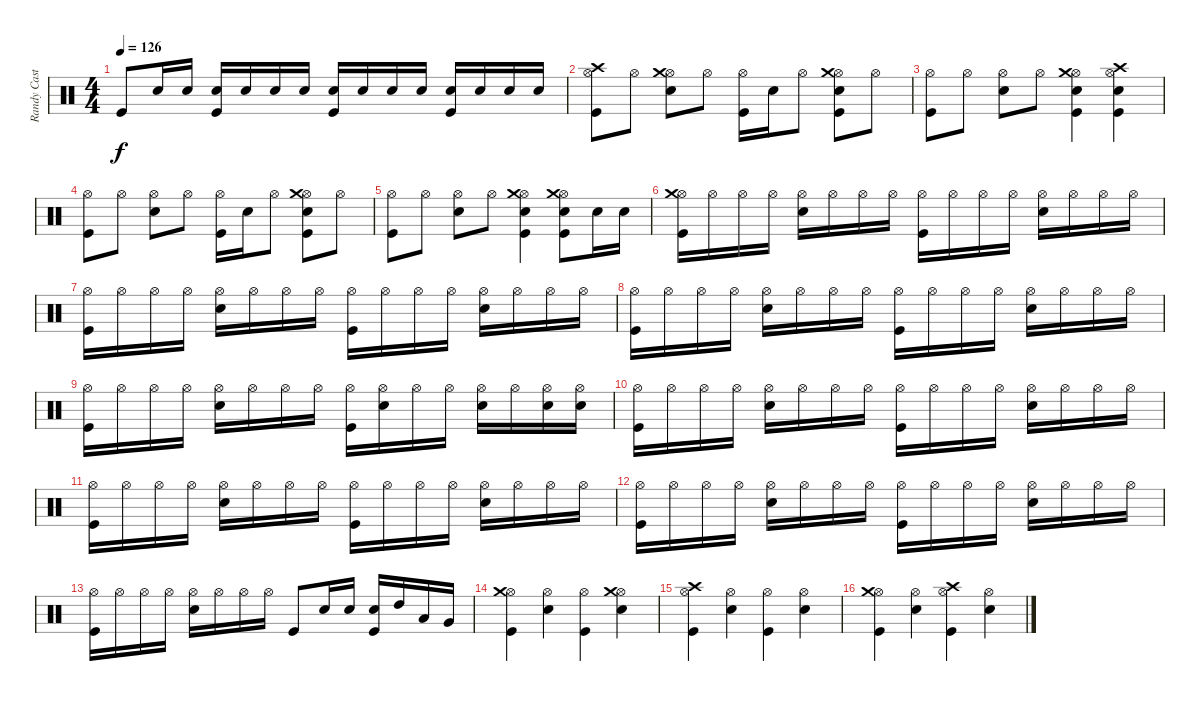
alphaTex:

\track ("Randy Castillo" "Randy Cast") {instrument percussion}
\staff {score}
\articulation defaults
\ts (4 4)
\tempo 126
\clef neutral
\ks c "Kick (hit)".8{dy f} "Snare (hit) 2".16 "Snare (hit) 2".16
("Kick (hit)" "Snare (hit) 2").16 "Snare (hit) 2".16 "Snare (hit) 2".16 "Snare (hit) 2".16 ("Kick (hit)" "Snare (hit) 2").16 "Snare (hit) 2".16 "Snare (hit) 2".16 "Snare (hit) 2".16 ("Kick (hit)" "Snare (hit) 2").16 "Snare (hit) 2".16 "Snare (hit) 2".16 "Snare (hit) 2".16 |
("Kick (hit)" "Hi-Hat (open)" "Crash high (hit)").8 "Hi-Hat (open)".8 ("Snare (hit) 2" "Hi-Hat (open)" "Crash medium (hit)").8 "Hi-Hat (open)".8 ("Kick (hit)" "Hi-Hat (open)").16 "Snare (hit) 2".16 "Hi-Hat (open)".8 ("Kick (hit)" "Snare (hit) 2" "Hi-Hat (open)" "Crash medium (hit)").8 "Hi-Hat (open)".8 |
("Kick (hit)" "Hi-Hat (open)").8 "Hi-Hat (open)".8 ("Snare (hit) 2" "Hi-Hat (open)").8 "Hi-Hat (open)".8 ("Kick (hit)" "Snare (hit) 2" "Hi-Hat (open)" "Crash medium (hit)").4 ("Kick (hit)" "Snare (hit) 2" "Hi-Hat (open)" "Crash high (hit)").4 |
("Kick (hit)" "Hi-Hat (open)").8 "Hi-Hat (open)".8 ("Snare (hit) 2" "Hi-Hat (open)").8 "Hi-Hat (open)".8 ("Kick (hit)" "Hi-Hat (open)").16 "Snare (hit) 2".16 "Hi-Hat (open)".8 ("Kick (hit)" "Snare (hit) 2" "Hi-Hat (open)" "Crash medium (hit)").8 "Hi-Hat (open)".8 |
("Kick (hit)" "Hi-Hat (open)").8 "Hi-Hat (open)".8 ("Snare (hit) 2" "Hi-Hat (open)").8 "Hi-Hat (open)".8 ("Kick (hit)" "Snare (hit) 2" "Hi-Hat (open)" "Crash medium (hit)").4 ("Kick (hit)" "Snare (hit) 2" "Hi-Hat (open)" "Crash medium (hit)").8 "Snare (hit) 2".16 "Snare (hit) 2".16 |
("Kick (hit)" "Hi-Hat (open)" "Crash medium (hit)").16 "Hi-Hat (open)".16 "Hi-Hat (open)".16 "Hi-Hat (open)".16 ("Snare (hit) 2" "Hi-Hat (open)").16 "Hi-Hat (open)".16 "Hi-Hat (open)".16 "Hi-Hat (open)".16 ("Kick (hit)" "Hi-Hat (open)").16 "Hi-Hat (open)".16 "Hi-Hat (open)".16 "Hi-Hat (open)".16 ("Snare (hit) 2" "Hi-Hat (open)").16 "Hi-Hat (open)".16 "Hi-Hat (open)".16 "Hi-Hat (open)".16 |
("Kick (hit)" "Hi-Hat (open)").16 "Hi-Hat (open)".16 "Hi-Hat (open)".16 "Hi-Hat (open)".16 ("Snare (hit) 2" "Hi-Hat (open)").16 "Hi-Hat (open)".16 "Hi-Hat (open)".16 "Hi-Hat (open)".16 ("Kick (hit)" "Hi-Hat (open)").16 "Hi-Hat (open)".16 "Hi-Hat (open)".16 "Hi-Hat (open)".16 ("Snare (hit) 2" "Hi-Hat (open)").16 "Hi-Hat (open)".16 "Hi-Hat (open)".16 "Hi-Hat (open)".16 |
("Kick (hit)" "Hi-Hat (open)").16 "Hi-Hat (open)".16 "Hi-Hat (open)".16 "Hi-Hat (open)".16 ("Snare (hit) 2" "Hi-Hat (open)").16 "Hi-Hat (open)".16 "Hi-Hat (open)".16 "Hi-Hat (open)".16 ("Kick (hit)" "Hi-Hat (open)").16 "Hi-Hat (open)".16 "Hi-Hat (open)".16 "Hi-Hat (open)".16 ("Snare (hit) 2" "Hi-Hat (open)").16 "Hi-Hat (open)".16 "Hi-Hat (open)".16 "Hi-Hat (open)".16 |
("Kick (hit)" "Hi-Hat (open)").16 "Hi-Hat (open)".16 "Hi-Hat (open)".16 "Hi-Hat (open)".16 ("Snare (hit) 2" "Hi-Hat (open)").16 "Hi-Hat (open)".16 "Hi-Hat (open)".16 "Hi-Hat (open)".16 ("Kick (hit)" "Hi-Hat (open)").16 ("Snare (hit) 2" "Hi-Hat (open)").16 "Hi-Hat (open)".16 "Hi-Hat (open)".16 ("Snare (hit) 2" "Hi-Hat (open)").16 "Hi-Hat (open)".16 ("Snare (hit) 2" "Hi-Hat (open)").16 ("Snare (hit) 2" "Hi-Hat (open)").16 |
("Kick (hit)" "Hi-Hat (open)").16 "Hi-Hat (open)".16 "Hi-Hat (open)".16 "Hi-Hat (open)".16 ("Snare (hit) 2" "Hi-Hat (open)").16 "Hi-Hat (open)".16 "Hi-Hat (open)".16 "Hi-Hat (open)".16 ("Kick (hit)" "Hi-Hat (open)").16 "Hi-Hat (open)".16 "Hi-Hat (open)".16 "Hi-Hat (open)".16 ("Snare (hit) 2" "Hi-Hat (open)").16 "Hi-Hat (open)".16 "Hi-Hat (open)".16 "Hi-Hat (open)".16 |
("Kick (hit)" "Hi-Hat (open)").16 "Hi-Hat (open)".16 "Hi-Hat (open)".16 "Hi-Hat (open)".16 ("Snare (hit) 2" "Hi-Hat (open)").16 "Hi-Hat (open)".16 "Hi-Hat (open)".16 "Hi-Hat (open)".16 ("Kick (hit)" "Hi-Hat (open)").16 "Hi-Hat (open)".16 "Hi-Hat (open)".16 "Hi-Hat (open)".16 ("Snare (hit) 2" "Hi-Hat (open)").16 "Hi-Hat (open)".16 "Hi-Hat (open)".16 "Hi-Hat (open)".16 |
("Kick (hit)" "Hi-Hat (open)").16 "Hi-Hat (open)".16 "Hi-Hat (open)".16 "Hi-Hat (open)".16 ("Snare (hit) 2" "Hi-Hat (open)").16 "Hi-Hat (open)".16 "Hi-Hat (open)".16 "Hi-Hat (open)".16 ("Kick (hit)" "Hi-Hat (open)").16 "Hi-Hat (open)".16 "Hi-Hat (open)".16 "Hi-Hat (open)".16 ("Snare (hit) 2" "Hi-Hat (open)").16 "Hi-Hat (open)".16 "Hi-Hat (open)".16 "Hi-Hat (open)".16 |
("Kick (hit)" "Hi-Hat (open)").16 "Hi-Hat (open)".16 "Hi-Hat (open)".16 "Hi-Hat (open)".16 ("Snare (hit) 2" "Hi-Hat (open)").16 "Hi-Hat (open)".16 "Hi-Hat (open)".16 "Hi-Hat (open)".16 "Kick (hit)".8 "Snare (hit) 2".16 "Snare (hit) 2".16 ("Kick (hit)" "Snare (hit) 2").16 "High Tom (hit)".16 "Low Tom (hit)".16 "Very Low Tom (hit)".16 |
("Kick (hit)" "Hi-Hat (open)" "Crash medium (hit)").4 ("Snare (hit) 2" "Hi-Hat (open)").4 ("Kick (hit)" "Hi-Hat (open)").4 ("Snare (hit) 2" "Hi-Hat (open)" "Crash medium (hit)").4 |
("Kick (hit)" "Hi-Hat (open)" "Crash high (hit)").4 ("Snare (hit) 2" "Hi-Hat (open)").4 ("Kick (hit)" "Hi-Hat (open)").4 ("Snare (hit) 2" "Hi-Hat (open)").4 |
("Kick (hit)" "Hi-Hat (open)" "Crash medium (hit)").4 ("Snare (hit) 2" "Hi-Hat (open)").4 ("Kick (hit)" "Hi-Hat (open)" "Crash high (hit)").4 ("Snare (hit) 2" "Hi-Hat (open)").4
